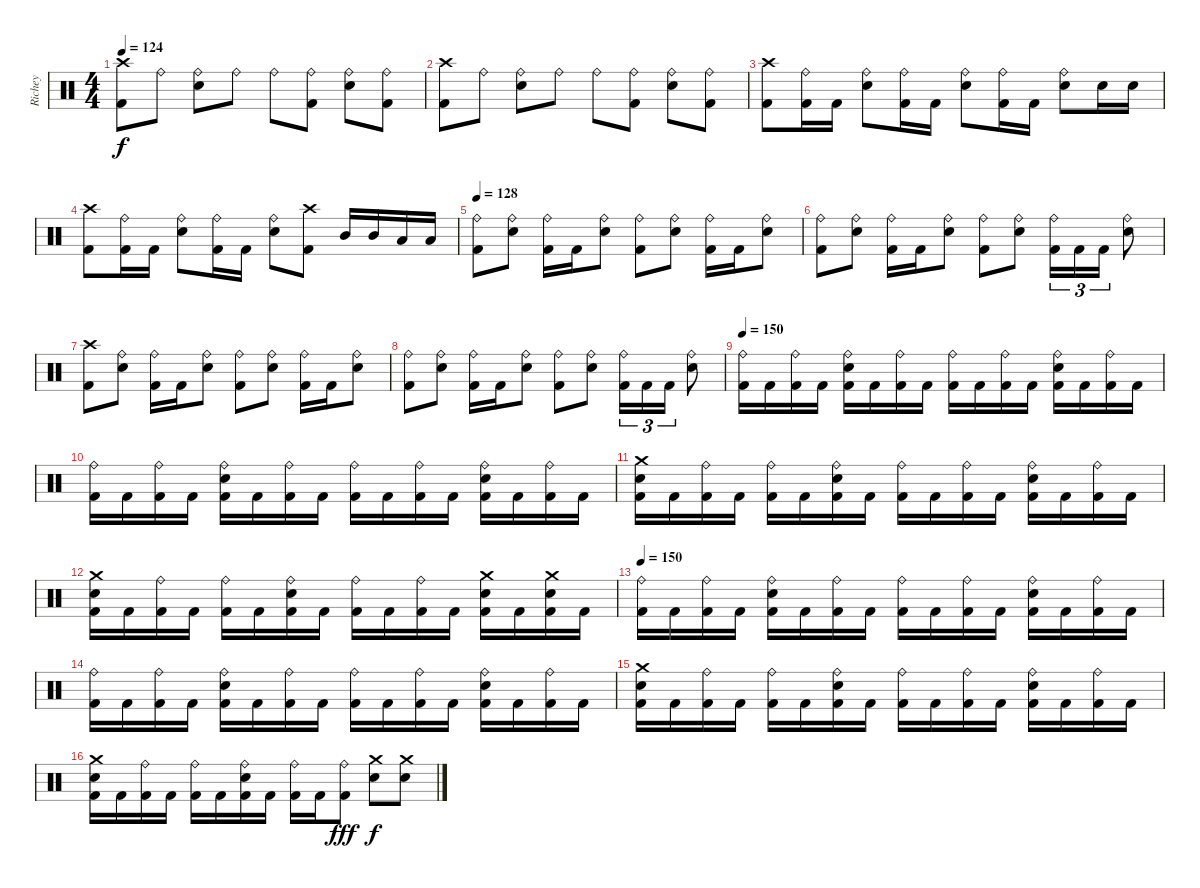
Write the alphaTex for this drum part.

\track ("Richey" "Richey") {instrument percussion}
\staff {score}
\articulation defaults
\ts (4 4)
\tempo 124
\clef neutral
\ks c
("Crash high (hit)" "Kick (hit) 2").8{dy f} "Ride (bell)".8 ("Ride (bell)" "Snare (hit) 2").8 "Ride (bell)".8 "Ride (bell)".8 ("Ride (bell)" "Kick (hit) 2").8 ("Ride (bell)" "Snare (hit) 2").8 ("Ride (bell)" "Kick (hit) 2").8 |
("Crash high (hit)" "Kick (hit) 2").8 "Ride (bell)".8 ("Ride (bell)" "Snare (hit) 2").8 "Ride (bell)".8 "Ride (bell)".8 ("Ride (bell)" "Kick (hit) 2").8 ("Ride (bell)" "Snare (hit) 2").8 ("Ride (bell)" "Kick (hit) 2").8 |
("Crash high (hit)" "Kick (hit) 2").8 ("Ride (bell)" "Kick (hit) 2").16 "Kick (hit) 2".16 ("Ride (bell)" "Snare (hit) 2").8 ("Ride (bell)" "Kick (hit) 2").16 "Kick (hit) 2".16 ("Ride (bell)" "Snare (hit) 2").8 ("Ride (bell)" "Kick (hit) 2").16 "Kick (hit) 2".16 ("Ride (bell)" "Snare (hit) 2").8 "Snare (hit) 2".16 "Snare (hit) 2".16 |
("Crash high (hit)" "Kick (hit) 2").8 ("Ride (bell)" "Kick (hit) 2").16 "Kick (hit) 2".16 ("Ride (bell)" "Snare (hit) 2").8 ("Ride (bell)" "Kick (hit) 2").16 "Kick (hit) 2".16 ("Ride (bell)" "Snare (hit) 2").8 ("Crash high (hit)" "Kick (hit) 2").8 "Mid Tom (hit)".16 "Mid Tom (hit)".16 "Low Tom (hit)".16 "Low Tom (hit)".16 |
\tempo 128
("Ride (bell)" "Kick (hit) 2").8 ("Ride (bell)" "Snare (hit) 2").8 ("Ride (bell)" "Kick (hit) 2").16 "Kick (hit) 2".16 ("Ride (bell)" "Snare (hit) 2").8 ("Ride (bell)" "Kick (hit) 2").8 ("Ride (bell)" "Snare (hit) 2").8 ("Ride (bell)" "Kick (hit) 2").16 "Kick (hit) 2".16 ("Ride (bell)" "Snare (hit) 2").8 |
("Ride (bell)" "Kick (hit) 2").8 ("Ride (bell)" "Snare (hit) 2").8 ("Ride (bell)" "Kick (hit) 2").16 "Kick (hit) 2".16 ("Ride (bell)" "Snare (hit) 2").8 ("Ride (bell)" "Kick (hit) 2").8 ("Ride (bell)" "Snare (hit) 2").8 ("Ride (bell)" "Kick (hit) 2").16{tu (3 2)} "Kick (hit) 2".16{tu (3 2)} "Kick (hit) 2".16{tu (3 2)} ("Ride (bell)" "Snare (hit) 2").8 |
("Crash high (hit)" "Kick (hit) 2").8 ("Ride (bell)" "Snare (hit) 2").8 ("Ride (bell)" "Kick (hit) 2").16 "Kick (hit) 2".16 ("Ride (bell)" "Snare (hit) 2").8 ("Ride (bell)" "Kick (hit) 2").8 ("Ride (bell)" "Snare (hit) 2").8 ("Ride (bell)" "Kick (hit) 2").16 "Kick (hit) 2".16 ("Ride (bell)" "Snare (hit) 2").8 |
("Ride (bell)" "Kick (hit) 2").8 ("Ride (bell)" "Snare (hit) 2").8 ("Ride (bell)" "Kick (hit) 2").16 "Kick (hit) 2".16 ("Ride (bell)" "Snare (hit) 2").8 ("Ride (bell)" "Kick (hit) 2").8 ("Ride (bell)" "Snare (hit) 2").8 ("Ride (bell)" "Kick (hit) 2").16{tu (3 2)} "Kick (hit) 2".16{tu (3 2)} "Kick (hit) 2".16{tu (3 2)} ("Ride (bell)" "Snare (hit) 2").8 |
\tempo 150
("Ride (bell)" "Kick (hit) 2").16 "Kick (hit) 2".16 ("Ride (bell)" "Kick (hit) 2").16 "Kick (hit) 2".16 ("Ride (bell)" "Snare (hit) 2" "Kick (hit) 2").16 "Kick (hit) 2".16 ("Ride (bell)" "Kick (hit) 2").16 "Kick (hit) 2".16 ("Ride (bell)" "Kick (hit) 2").16 "Kick (hit) 2".16 ("Ride (bell)" "Kick (hit) 2").16 "Kick (hit) 2".16 ("Ride (bell)" "Snare (hit) 2" "Kick (hit) 2").16 "Kick (hit) 2".16 ("Ride (bell)" "Kick (hit) 2").16 "Kick (hit) 2".16 |
("Ride (bell)" "Kick (hit) 2").16 "Kick (hit) 2".16 ("Ride (bell)" "Kick (hit) 2").16 "Kick (hit) 2".16 ("Ride (bell)" "Snare (hit) 2" "Kick (hit) 2").16 "Kick (hit) 2".16 ("Ride (bell)" "Kick (hit) 2").16 "Kick (hit) 2".16 ("Ride (bell)" "Kick (hit) 2").16 "Kick (hit) 2".16 ("Ride (bell)" "Kick (hit) 2").16 "Kick (hit) 2".16 ("Ride (bell)" "Snare (hit) 2" "Kick (hit) 2").16 "Kick (hit) 2".16 ("Ride (bell)" "Kick (hit) 2").16 "Kick (hit) 2".16 |
("Crash medium (hit)" "Snare (hit) 2" "Kick (hit) 2").16 "Kick (hit) 2".16 ("Ride (bell)" "Kick (hit) 2").16 "Kick (hit) 2".16 ("Ride (bell)" "Kick (hit) 2").16 "Kick (hit) 2".16 ("Ride (bell)" "Snare (hit) 2" "Kick (hit) 2").16 "Kick (hit) 2".16 ("Ride (bell)" "Kick (hit) 2").16 "Kick (hit) 2".16 ("Ride (bell)" "Kick (hit) 2").16 "Kick (hit) 2".16 ("Ride (bell)" "Snare (hit) 2" "Kick (hit) 2").16 "Kick (hit) 2".16 ("Ride (bell)" "Kick (hit) 2").16 "Kick (hit) 2".16 |
("Crash medium (hit)" "Snare (hit) 2" "Kick (hit) 2").16 "Kick (hit) 2".16 ("Ride (bell)" "Kick (hit) 2").16 "Kick (hit) 2".16 ("Ride (bell)" "Kick (hit) 2").16 "Kick (hit) 2".16 ("Ride (bell)" "Snare (hit) 2" "Kick (hit) 2").16 "Kick (hit) 2".16 ("Ride (bell)" "Kick (hit) 2").16 "Kick (hit) 2".16 ("Ride (bell)" "Kick (hit) 2").16 "Kick (hit) 2".16 ("Crash medium (hit)" "Snare (hit) 2" "Kick (hit) 2").16 "Kick (hit) 2".16 ("Crash medium (hit)" "Snare (hit) 2" "Kick (hit) 2").16 "Kick (hit) 2".16 |
\tempo 150
("Ride (bell)" "Kick (hit) 2").16 "Kick (hit) 2".16 ("Ride (bell)" "Kick (hit) 2").16 "Kick (hit) 2".16 ("Ride (bell)" "Snare (hit) 2" "Kick (hit) 2").16 "Kick (hit) 2".16 ("Ride (bell)" "Kick (hit) 2").16 "Kick (hit) 2".16 ("Ride (bell)" "Kick (hit) 2").16 "Kick (hit) 2".16 ("Ride (bell)" "Kick (hit) 2").16 "Kick (hit) 2".16 ("Ride (bell)" "Snare (hit) 2" "Kick (hit) 2").16 "Kick (hit) 2".16 ("Ride (bell)" "Kick (hit) 2").16 "Kick (hit) 2".16 |
("Ride (bell)" "Kick (hit) 2").16 "Kick (hit) 2".16 ("Ride (bell)" "Kick (hit) 2").16 "Kick (hit) 2".16 ("Ride (bell)" "Snare (hit) 2" "Kick (hit) 2").16 "Kick (hit) 2".16 ("Ride (bell)" "Kick (hit) 2").16 "Kick (hit) 2".16 ("Ride (bell)" "Kick (hit) 2").16 "Kick (hit) 2".16 ("Ride (bell)" "Kick (hit) 2").16 "Kick (hit) 2".16 ("Ride (bell)" "Snare (hit) 2" "Kick (hit) 2").16 "Kick (hit) 2".16 ("Ride (bell)" "Kick (hit) 2").16 "Kick (hit) 2".16 |
("Crash medium (hit)" "Snare (hit) 2" "Kick (hit) 2").16 "Kick (hit) 2".16 ("Ride (bell)" "Kick (hit) 2").16 "Kick (hit) 2".16 ("Ride (bell)" "Kick (hit) 2").16 "Kick (hit) 2".16 ("Ride (bell)" "Snare (hit) 2" "Kick (hit) 2").16 "Kick (hit) 2".16 ("Ride (bell)" "Kick (hit) 2").16 "Kick (hit) 2".16 ("Ride (bell)" "Kick (hit) 2").16 "Kick (hit) 2".16 ("Ride (bell)" "Snare (hit) 2" "Kick (hit) 2").16 "Kick (hit) 2".16 ("Ride (bell)" "Kick (hit) 2").16 "Kick (hit) 2".16 |
("Crash medium (hit)" "Snare (hit) 2" "Kick (hit) 2").16 "Kick (hit) 2".16 ("Ride (bell)" "Kick (hit) 2").16 "Kick (hit) 2".16 ("Ride (bell)" "Kick (hit) 2").16 "Kick (hit) 2".16 ("Ride (bell)" "Snare (hit) 2" "Kick (hit) 2").16 "Kick (hit) 2".16 ("Ride (bell)" "Kick (hit) 2").16 "Kick (hit) 2".16 ("Ride (bell)" "Kick (hit) 2").8{dy fff} ("Crash medium (hit)" "Snare (hit) 2").8{dy f} ("Crash medium (hit)" "Snare (hit) 2").8
